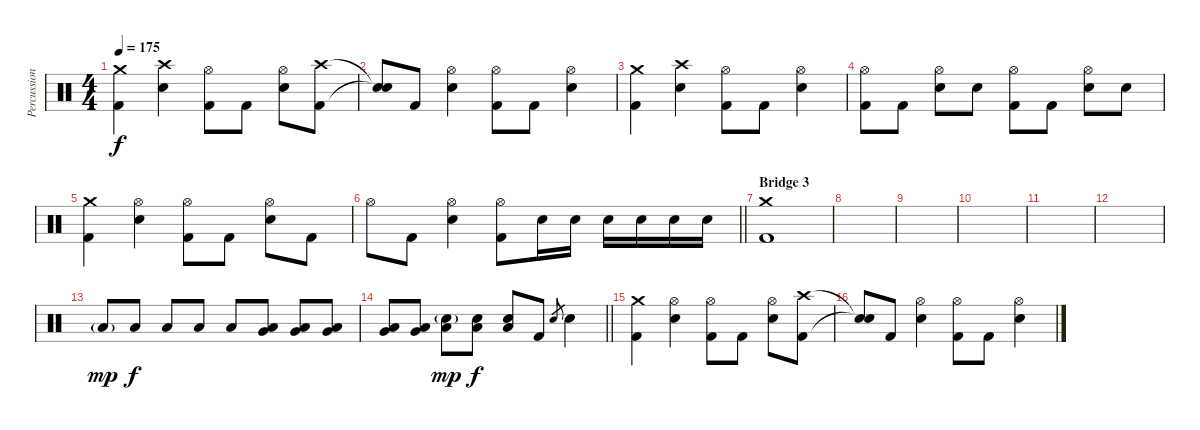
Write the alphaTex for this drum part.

\track ("Percussions" "Percussion") {instrument percussion}
\staff {score}
\articulation defaults
\ts (4 4)
\tempo 175
\clef neutral
\ks c
("Crash medium (hit)" "Kick (hit) 2").4{dy f} ("Crash high (hit)" "Electric Snare (hit)").4 ("Hi-Hat (open)" "Kick (hit) 2").8 "Kick (hit) 2".8 ("Hi-Hat (open)" "Electric Snare (hit)").8 ("Crash high (hit)" "Kick (hit) 2").8 |
("Snare (hit)"{t} "Snare (hit)"{t}).8 "Kick (hit) 2".8 ("Hi-Hat (open)" "Electric Snare (hit)").4 ("Hi-Hat (open)" "Kick (hit) 2").8 "Kick (hit) 2".8 ("Hi-Hat (open)" "Electric Snare (hit)").4 |
("Crash medium (hit)" "Kick (hit) 2").4 ("Crash high (hit)" "Electric Snare (hit)").4 ("Hi-Hat (open)" "Kick (hit) 2").8 "Kick (hit) 2".8 ("Hi-Hat (open)" "Electric Snare (hit)").4 |
("Hi-Hat (open)" "Kick (hit) 2").8 "Kick (hit) 2".8 ("Hi-Hat (open)" "Electric Snare (hit)").8 "Electric Snare (hit)".8 ("Hi-Hat (open)" "Kick (hit) 2").8 "Kick (hit) 2".8 ("Hi-Hat (open)" "Electric Snare (hit)").8 "Electric Snare (hit)".8 |
("Crash medium (hit)" "Kick (hit) 2").4 ("Hi-Hat (open)" "Electric Snare (hit)").4 ("Hi-Hat (open)" "Kick (hit) 2").8 "Kick (hit) 2".8 ("Hi-Hat (open)" "Electric Snare (hit)").8 "Kick (hit) 2".8 |
\barLineRight lightlight "Hi-Hat (open)".8 "Kick (hit) 2".8
("Hi-Hat (open)" "Electric Snare (hit)").4 ("Hi-Hat (open)" "Kick (hit) 2").8 "Electric Snare (hit)".16 "Electric Snare (hit)".16 "Electric Snare (hit)".16 "Electric Snare (hit)".16 "Electric Snare (hit)".16 "Electric Snare (hit)".16 |
\section ("" "Bridge 3")
("Crash medium (hit)" "Kick (hit) 2").1 |
|
|
|
|
|
"Low Floor Tom (hit)"{g}.8{dy mp} "Low Floor Tom (hit)".8{dy f} "Low Floor Tom (hit)".8 "Low Floor Tom (hit)".8 "Low Floor Tom (hit)".8 ("Very Low Tom (hit)" "Low Floor Tom (hit)").8 ("Very Low Tom (hit)" "Low Floor Tom (hit)").8 ("Very Low Tom (hit)" "Low Floor Tom (hit)").8 |
\barLineRight lightlight
("Very Low Tom (hit)" "Low Tom (hit)").8 ("Very Low Tom (hit)" "Low Tom (hit)").8 ("Electric Snare (hit)"{g} "Low Tom (hit)").8{dy mp} ("Electric Snare (hit)" "Low Tom (hit)").8{dy f} ("Electric Snare (hit)" "Low Tom (hit)").8 "Kick (hit) 2".8 "Electric Snare (hit)".8{gr} "Electric Snare (hit)".4 |
("Crash medium (hit)" "Kick (hit) 2").4 ("Hi-Hat (open)" "Electric Snare (hit)").4 ("Hi-Hat (open)" "Kick (hit) 2").8 "Kick (hit) 2".8 ("Hi-Hat (open)" "Electric Snare (hit)").8 ("Crash high (hit)" "Kick (hit) 2").8 |
("Snare (hit)"{t} "Snare (hit)"{t}).8 "Kick (hit) 2".8 ("Hi-Hat (open)" "Electric Snare (hit)").4 ("Hi-Hat (open)" "Kick (hit) 2").8 "Kick (hit) 2".8 ("Hi-Hat (open)" "Electric Snare (hit)").4
